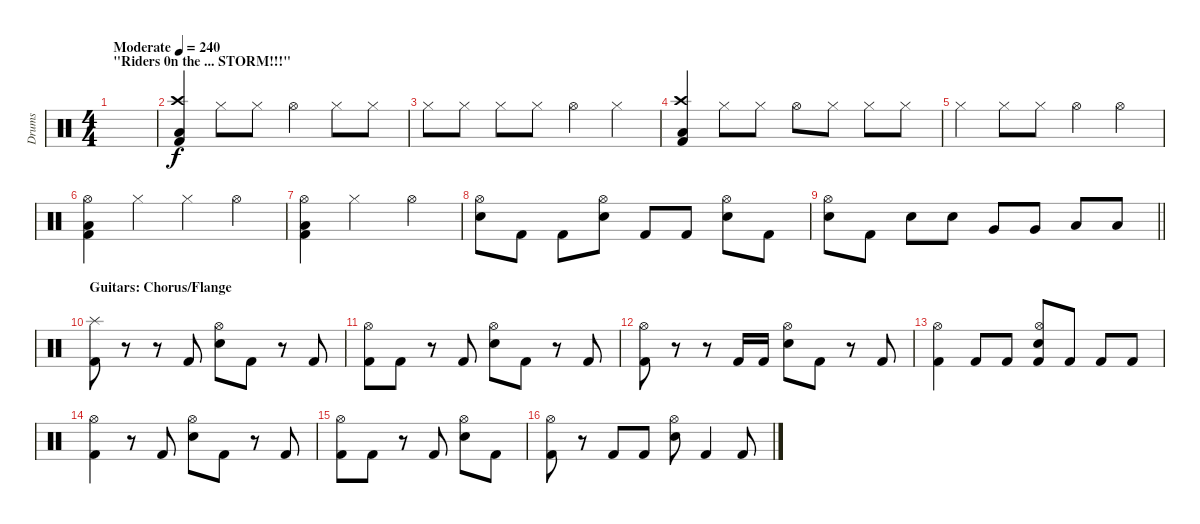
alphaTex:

\track ("Drums" "Drums") {instrument percussion}
\staff {score}
\articulation defaults
\ts (4 4)
\section ("" "\"Riders 0n the ... STORM!!!\"")
\tempo (240 "Moderate")
\clef neutral
\ks c
|
("Low Tom (hit)" "Crash high (hit)" "Kick (hit) 2").4 "Hi-Hat (closed)".8 "Hi-Hat (closed)".8 "Hi-Hat (open)".4 "Hi-Hat (closed)".8 "Hi-Hat (closed)".8 |
"Hi-Hat (closed)".8 "Hi-Hat (closed)".8 "Hi-Hat (closed)".8 "Hi-Hat (closed)".8 "Hi-Hat (open)".4 "Hi-Hat (closed)".4 |
("Low Tom (hit)" "Crash high (hit)" "Kick (hit) 2").4 "Hi-Hat (closed)".8 "Hi-Hat (closed)".8 "Hi-Hat (open)".8 "Hi-Hat (closed)".8 "Hi-Hat (closed)".8 "Hi-Hat (closed)".8 |
"Hi-Hat (closed)".4 "Hi-Hat (closed)".8 "Hi-Hat (closed)".8 "Hi-Hat (open)".4 "Hi-Hat (open)".4 |
("Low Tom (hit)" "Hi-Hat (open)" "Kick (hit) 2").4 "Hi-Hat (closed)".4 "Hi-Hat (closed)".4 "Hi-Hat (open)".4 |
("Low Tom (hit)" "Hi-Hat (open)" "Kick (hit) 2").4 "Hi-Hat (closed)".2 "Hi-Hat (open)".4 |
("Hi-Hat (open)" "Electric Snare (hit)").8 "Kick (hit) 2".8 "Kick (hit) 2".8 ("Hi-Hat (open)" "Electric Snare (hit)").8 "Kick (hit) 2".8 "Kick (hit) 2".8 ("Hi-Hat (open)" "Electric Snare (hit)").8 "Kick (hit) 2".8 |
\barLineRight lightlight
("Hi-Hat (open)" "Electric Snare (hit)").8 "Kick (hit) 2".8 "Electric Snare (hit)".8 "Electric Snare (hit)".8 "Very Low Tom (hit)".8 "Very Low Tom (hit)".8 "Low Floor Tom (hit)".8 "Low Floor Tom (hit)".8 |
\section ("" "Guitars: Chorus/Flange")
("Splash (hit)" "Kick (hit) 2").8 r.8 r.8 "Kick (hit) 2".8 ("Hi-Hat (open)" "Electric Snare (hit)").8 "Kick (hit) 2".8 r.8 "Kick (hit) 2".8 |
("Hi-Hat (open)" "Kick (hit) 2").8 "Kick (hit) 2".8 r.8 "Kick (hit) 2".8 ("Hi-Hat (open)" "Electric Snare (hit)").8 "Kick (hit) 2".8 r.8 "Kick (hit) 2".8 |
("Hi-Hat (open)" "Kick (hit) 2").8 r.8 r.8 "Kick (hit) 2".16 "Kick (hit) 2".16 ("Hi-Hat (open)" "Electric Snare (hit)").8 "Kick (hit) 2".8 r.8 "Kick (hit) 2".8 |
("Hi-Hat (open)" "Kick (hit) 2").4 "Kick (hit) 2".8 "Kick (hit) 2".8 ("Hi-Hat (open)" "Electric Snare (hit)" "Kick (hit) 2").8 "Kick (hit) 2".8 "Kick (hit) 2".8 "Kick (hit) 2".8 |
("Hi-Hat (open)" "Kick (hit) 2").4 r.8 "Kick (hit) 2".8 ("Hi-Hat (open)" "Electric Snare (hit)").8 "Kick (hit) 2".8 r.8 "Kick (hit) 2".8 |
("Hi-Hat (open)" "Kick (hit) 2").8 "Kick (hit) 2".8 r.8 "Kick (hit) 2".8 ("Hi-Hat (open)" "Electric Snare (hit)").8 "Kick (hit) 2".8 |
("Hi-Hat (open)" "Kick (hit) 2").8 r.8 "Kick (hit) 2".8 "Kick (hit) 2".8 ("Hi-Hat (open)" "Electric Snare (hit)").8 "Kick (hit) 2".4 "Kick (hit) 2".8
